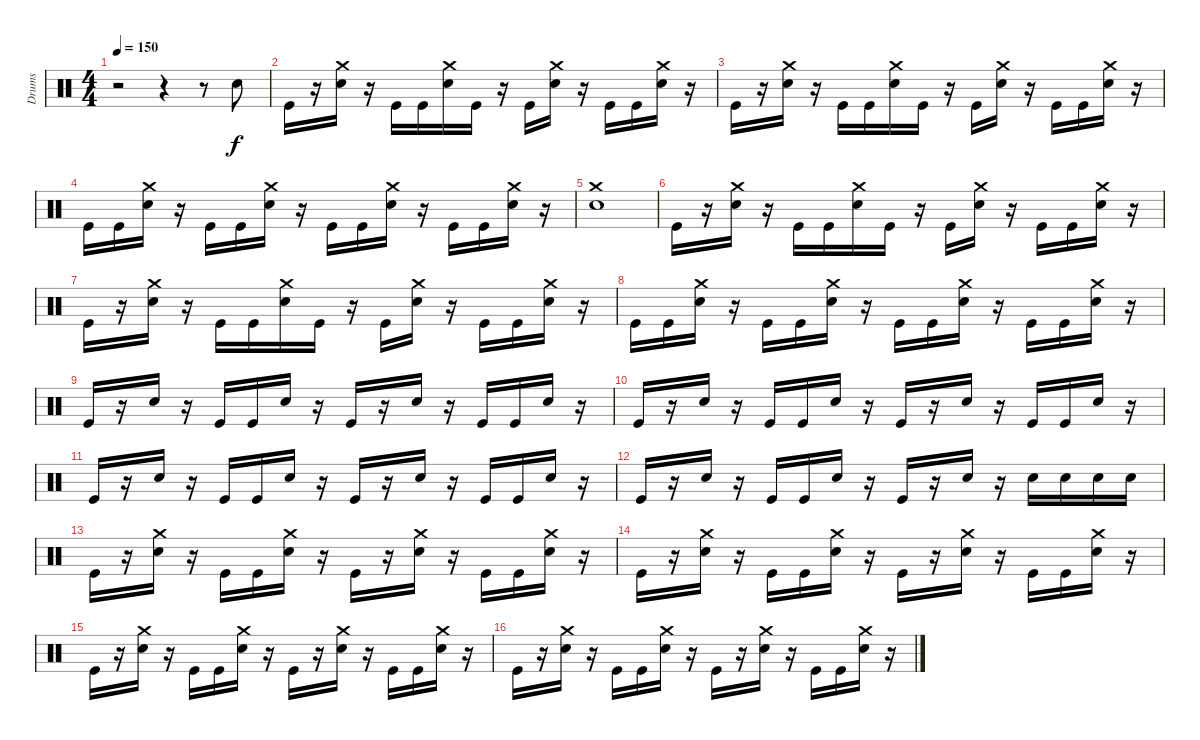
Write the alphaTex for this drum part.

\track ("Drums" "Drums") {instrument percussion}
\staff {score}
\articulation defaults
\ts (4 4)
\tempo 150
\clef neutral
\ks c
r.2{dy f} r.4 r.8 "Snare (hit) 2".8 |
"Kick (hit)".16 r.16 ("Crash medium (hit)" "Snare (hit) 2").16 r.16 "Kick (hit)".16 "Kick (hit)".16 ("Crash medium (hit)" "Snare (hit) 2").16 "Kick (hit)".16 r.16 "Kick (hit)".16 ("Crash medium (hit)" "Snare (hit) 2").16 r.16 "Kick (hit)".16 "Kick (hit)".16 ("Crash medium (hit)" "Snare (hit) 2").16 r.16 |
"Kick (hit)".16 r.16 ("Crash medium (hit)" "Snare (hit) 2").16 r.16 "Kick (hit)".16 "Kick (hit)".16 ("Crash medium (hit)" "Snare (hit) 2").16 "Kick (hit)".16 r.16 "Kick (hit)".16 ("Crash medium (hit)" "Snare (hit) 2").16 r.16 "Kick (hit)".16 "Kick (hit)".16 ("Crash medium (hit)" "Snare (hit) 2").16 r.16 |
"Kick (hit)".16 "Kick (hit)".16 ("Crash medium (hit)" "Snare (hit) 2").16 r.16 "Kick (hit)".16 "Kick (hit)".16 ("Crash medium (hit)" "Snare (hit) 2").16 r.16 "Kick (hit)".16 "Kick (hit)".16 ("Crash medium (hit)" "Snare (hit) 2").16 r.16 "Kick (hit)".16 "Kick (hit)".16 ("Crash medium (hit)" "Snare (hit) 2").16 r.16 |
("Crash medium (hit)" "Snare (hit) 2").1 |
"Kick (hit)".16 r.16 ("Crash medium (hit)" "Snare (hit) 2").16 r.16 "Kick (hit)".16 "Kick (hit)".16 ("Crash medium (hit)" "Snare (hit) 2").16 "Kick (hit)".16 r.16 "Kick (hit)".16 ("Crash medium (hit)" "Snare (hit) 2").16 r.16 "Kick (hit)".16 "Kick (hit)".16 ("Crash medium (hit)" "Snare (hit) 2").16 r.16 |
"Kick (hit)".16 r.16 ("Crash medium (hit)" "Snare (hit) 2").16 r.16 "Kick (hit)".16 "Kick (hit)".16 ("Crash medium (hit)" "Snare (hit) 2").16 "Kick (hit)".16 r.16 "Kick (hit)".16 ("Crash medium (hit)" "Snare (hit) 2").16 r.16 "Kick (hit)".16 "Kick (hit)".16 ("Crash medium (hit)" "Snare (hit) 2").16 r.16 |
"Kick (hit)".16 "Kick (hit)".16 ("Crash medium (hit)" "Snare (hit) 2").16 r.16 "Kick (hit)".16 "Kick (hit)".16 ("Crash medium (hit)" "Snare (hit) 2").16 r.16 "Kick (hit)".16 "Kick (hit)".16 ("Crash medium (hit)" "Snare (hit) 2").16 r.16 "Kick (hit)".16 "Kick (hit)".16 ("Crash medium (hit)" "Snare (hit) 2").16 r.16 |
"Kick (hit)".16 r.16 "Snare (hit) 2".16 r.16 "Kick (hit)".16 "Kick (hit)".16 "Snare (hit) 2".16 r.16 "Kick (hit)".16 r.16 "Snare (hit) 2".16 r.16 "Kick (hit)".16 "Kick (hit)".16 "Snare (hit) 2".16 r.16 |
"Kick (hit)".16 r.16 "Snare (hit) 2".16 r.16 "Kick (hit)".16 "Kick (hit)".16 "Snare (hit) 2".16 r.16 "Kick (hit)".16 r.16 "Snare (hit) 2".16 r.16 "Kick (hit)".16 "Kick (hit)".16 "Snare (hit) 2".16 r.16 |
"Kick (hit)".16 r.16 "Snare (hit) 2".16 r.16 "Kick (hit)".16 "Kick (hit)".16 "Snare (hit) 2".16 r.16 "Kick (hit)".16 r.16 "Snare (hit) 2".16 r.16 "Kick (hit)".16 "Kick (hit)".16 "Snare (hit) 2".16 r.16 |
"Kick (hit)".16 r.16 "Snare (hit) 2".16 r.16 "Kick (hit)".16 "Kick (hit)".16 "Snare (hit) 2".16 r.16 "Kick (hit)".16 r.16 "Snare (hit) 2".16 r.16 "Snare (hit) 2".16 "Snare (hit) 2".16 "Snare (hit) 2".16 "Snare (hit) 2".16 |
"Kick (hit)".16 r.16 ("Crash medium (hit)" "Snare (hit) 2").16 r.16 "Kick (hit)".16 "Kick (hit)".16 ("Crash medium (hit)" "Snare (hit) 2").16 r.16 "Kick (hit)".16 r.16 ("Crash medium (hit)" "Snare (hit) 2").16 r.16 "Kick (hit)".16 "Kick (hit)".16 ("Crash medium (hit)" "Snare (hit) 2").16 r.16 |
"Kick (hit)".16 r.16 ("Crash medium (hit)" "Snare (hit) 2").16 r.16 "Kick (hit)".16 "Kick (hit)".16 ("Crash medium (hit)" "Snare (hit) 2").16 r.16 "Kick (hit)".16 r.16 ("Crash medium (hit)" "Snare (hit) 2").16 r.16 "Kick (hit)".16 "Kick (hit)".16 ("Crash medium (hit)" "Snare (hit) 2").16 r.16 |
"Kick (hit)".16 r.16 ("Crash medium (hit)" "Snare (hit) 2").16 r.16 "Kick (hit)".16 "Kick (hit)".16 ("Crash medium (hit)" "Snare (hit) 2").16 r.16 "Kick (hit)".16 r.16 ("Crash medium (hit)" "Snare (hit) 2").16 r.16 "Kick (hit)".16 "Kick (hit)".16 ("Crash medium (hit)" "Snare (hit) 2").16 r.16 |
"Kick (hit)".16 r.16 ("Crash medium (hit)" "Snare (hit) 2").16 r.16 "Kick (hit)".16 "Kick (hit)".16 ("Crash medium (hit)" "Snare (hit) 2").16 r.16 "Kick (hit)".16 r.16 ("Crash medium (hit)" "Snare (hit) 2").16 r.16 "Kick (hit)".16 "Kick (hit)".16 ("Crash medium (hit)" "Snare (hit) 2").16 r.16
